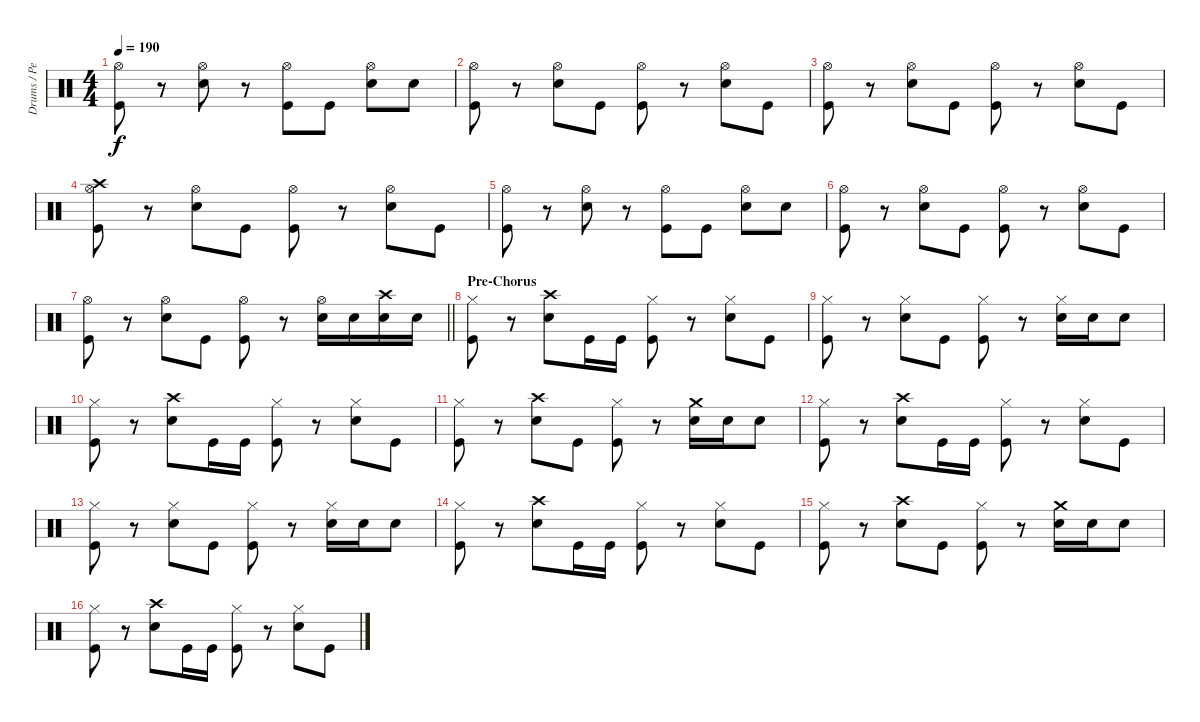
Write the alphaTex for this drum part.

\track ("Drums / Percussion" "Drums / Pe") {instrument percussion}
\staff {score}
\articulation defaults
\ts (4 4)
\tempo 190
\clef neutral
\ks c
("Hi-Hat (open)" "Kick (hit)").8{dy f} r.8 ("Hi-Hat (open)" "Electric Snare (hit)").8 r.8 ("Hi-Hat (open)" "Kick (hit)").8 "Kick (hit)".8 ("Hi-Hat (open)" "Electric Snare (hit)").8 "Electric Snare (hit)".8 |
("Hi-Hat (open)" "Kick (hit)").8 r.8 ("Hi-Hat (open)" "Electric Snare (hit)").8 "Kick (hit)".8 ("Hi-Hat (open)" "Kick (hit)").8 r.8 ("Hi-Hat (open)" "Electric Snare (hit)").8 "Kick (hit)".8 |
("Hi-Hat (open)" "Kick (hit)").8 r.8 ("Hi-Hat (open)" "Electric Snare (hit)").8 "Kick (hit)".8 ("Hi-Hat (open)" "Kick (hit)").8 r.8 ("Hi-Hat (open)" "Electric Snare (hit)").8 "Kick (hit)".8 |
("Hi-Hat (open)" "Crash high (hit)" "Kick (hit)").8 r.8 ("Hi-Hat (open)" "Electric Snare (hit)").8 "Kick (hit)".8 ("Hi-Hat (open)" "Kick (hit)").8 r.8 ("Hi-Hat (open)" "Electric Snare (hit)").8 "Kick (hit)".8 |
("Hi-Hat (open)" "Kick (hit)").8 r.8 ("Hi-Hat (open)" "Electric Snare (hit)").8 r.8 ("Hi-Hat (open)" "Kick (hit)").8 "Kick (hit)".8 ("Hi-Hat (open)" "Electric Snare (hit)").8 "Electric Snare (hit)".8 |
("Hi-Hat (open)" "Kick (hit)").8 r.8 ("Hi-Hat (open)" "Electric Snare (hit)").8 "Kick (hit)".8 ("Hi-Hat (open)" "Kick (hit)").8 r.8 ("Hi-Hat (open)" "Electric Snare (hit)").8 "Kick (hit)".8 |
\barLineRight lightlight
("Hi-Hat (open)" "Kick (hit)").8 r.8 ("Hi-Hat (open)" "Electric Snare (hit)").8 "Kick (hit)".8 ("Hi-Hat (open)" "Kick (hit)").8 r.8 ("Hi-Hat (open)" "Electric Snare (hit)").16 "Electric Snare (hit)".16 ("Crash high (hit)" "Electric Snare (hit)").16 "Electric Snare (hit)".16 |
\section ("" "Pre-Chorus")
("Hi-Hat (closed)" "Kick (hit)").8 r.8 ("Crash high (hit)" "Electric Snare (hit)").8 "Kick (hit)".16 "Kick (hit)".16 ("Hi-Hat (closed)" "Kick (hit)").8 r.8 ("Hi-Hat (closed)" "Electric Snare (hit)").8 "Kick (hit)".8 |
("Hi-Hat (closed)" "Kick (hit)").8 r.8 ("Hi-Hat (closed)" "Electric Snare (hit)").8 "Kick (hit)".8 ("Hi-Hat (closed)" "Kick (hit)").8 r.8 ("Hi-Hat (closed)" "Electric Snare (hit)").16 "Electric Snare (hit)".16 "Electric Snare (hit)".8 |
("Hi-Hat (closed)" "Kick (hit)").8 r.8 ("Crash high (hit)" "Electric Snare (hit)").8 "Kick (hit)".16 "Kick (hit)".16 ("Hi-Hat (closed)" "Kick (hit)").8 r.8 ("Hi-Hat (closed)" "Electric Snare (hit)").8 "Kick (hit)".8 |
("Hi-Hat (closed)" "Kick (hit)").8 r.8 ("Crash high (hit)" "Electric Snare (hit)").8 "Kick (hit)".8 ("Hi-Hat (closed)" "Kick (hit)").8 r.8 ("Crash medium (hit)" "Electric Snare (hit)").16 "Electric Snare (hit)".16 "Electric Snare (hit)".8 |
("Hi-Hat (closed)" "Kick (hit)").8 r.8 ("Crash high (hit)" "Electric Snare (hit)").8 "Kick (hit)".16 "Kick (hit)".16 ("Hi-Hat (closed)" "Kick (hit)").8 r.8 ("Hi-Hat (closed)" "Electric Snare (hit)").8 "Kick (hit)".8 |
("Hi-Hat (closed)" "Kick (hit)").8 r.8 ("Hi-Hat (closed)" "Electric Snare (hit)").8 "Kick (hit)".8 ("Hi-Hat (closed)" "Kick (hit)").8 r.8 ("Hi-Hat (closed)" "Electric Snare (hit)").16 "Electric Snare (hit)".16 "Electric Snare (hit)".8 |
("Hi-Hat (closed)" "Kick (hit)").8 r.8 ("Crash high (hit)" "Electric Snare (hit)").8 "Kick (hit)".16 "Kick (hit)".16 ("Hi-Hat (closed)" "Kick (hit)").8 r.8 ("Hi-Hat (closed)" "Electric Snare (hit)").8 "Kick (hit)".8 |
("Hi-Hat (closed)" "Kick (hit)").8 r.8 ("Crash high (hit)" "Electric Snare (hit)").8 "Kick (hit)".8 ("Hi-Hat (closed)" "Kick (hit)").8 r.8 ("Crash medium (hit)" "Electric Snare (hit)").16 "Electric Snare (hit)".16 "Electric Snare (hit)".8 |
("Hi-Hat (closed)" "Kick (hit)").8 r.8 ("Crash high (hit)" "Electric Snare (hit)").8 "Kick (hit)".16 "Kick (hit)".16 ("Hi-Hat (closed)" "Kick (hit)").8 r.8 ("Hi-Hat (closed)" "Electric Snare (hit)").8 "Kick (hit)".8
